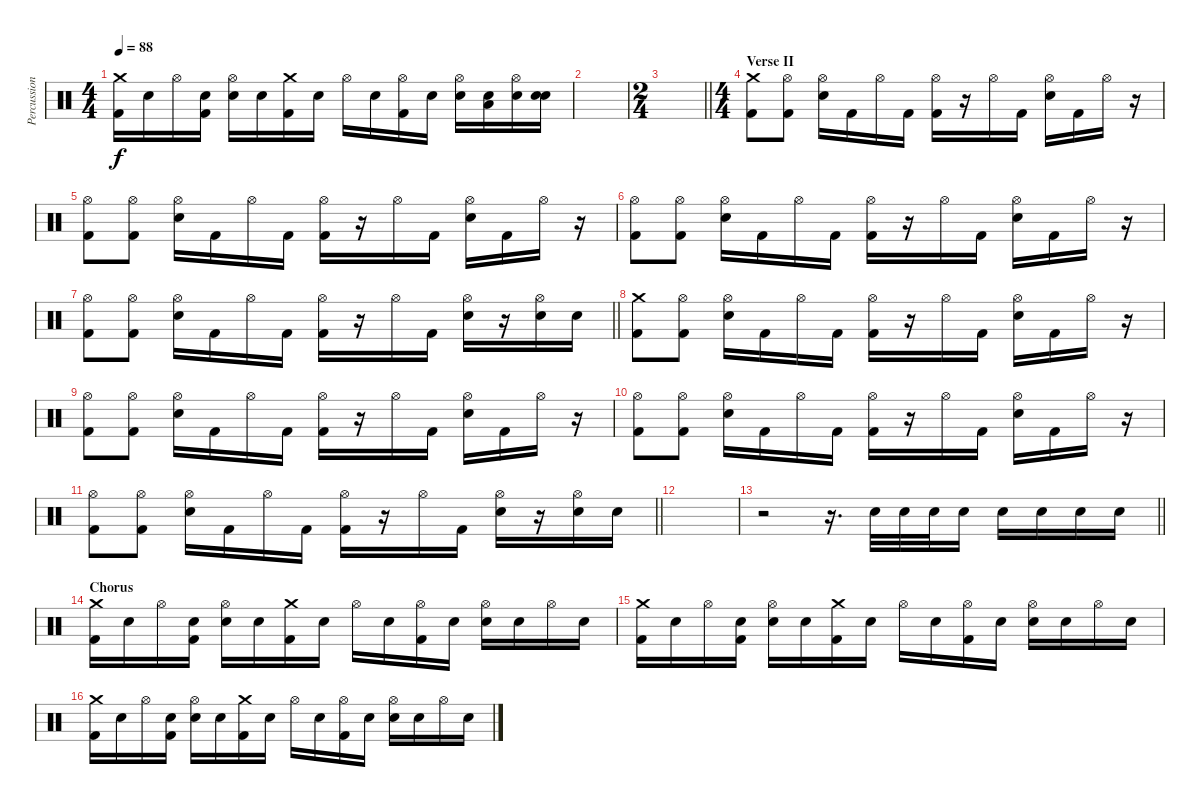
\track ("Percussion" "Percussion") {instrument percussion}
\staff {score}
\articulation defaults
\ts (4 4)
\tempo 88
\clef neutral
\ks c
("Crash medium (hit)" "Kick (hit) 2").16{dy f} "Snare (hit)".16 "Hi-Hat (open)".16 ("Snare (hit)" "Kick (hit) 2").16 ("Hi-Hat (open)" "Electric Snare (hit)").16 "Snare (hit)".16 ("Crash medium (hit)" "Kick (hit) 2").16 "Snare (hit)".16 "Hi-Hat (open)".16 "Snare (hit)".16 ("Hi-Hat (open)" "Kick (hit) 2").16 "Snare (hit)".16 ("Hi-Hat (open)" "Electric Snare (hit)").16 ("Snare (hit)" "Low Tom (hit)").16 ("Hi-Hat (open)" "Electric Snare (hit)").16 ("Snare (hit)" "Electric Snare (hit)").16 |
|
\ts (2 4)
\barLineRight lightlight
|
\ts (4 4)
\section ("" "Verse II")
("Crash medium (hit)" "Kick (hit) 2").8 ("Hi-Hat (open)" "Kick (hit) 2").8 ("Hi-Hat (open)" "Electric Snare (hit)").16 "Kick (hit) 2".16 "Hi-Hat (open)".16 "Kick (hit) 2".16 ("Hi-Hat (open)" "Kick (hit) 2").16 r.16 "Hi-Hat (open)".16 "Kick (hit) 2".16 ("Hi-Hat (open)" "Electric Snare (hit)").16 "Kick (hit) 2".16 "Hi-Hat (open)".16 r.16 |
("Hi-Hat (open)" "Kick (hit) 2").8 ("Hi-Hat (open)" "Kick (hit) 2").8 ("Hi-Hat (open)" "Electric Snare (hit)").16 "Kick (hit) 2".16 "Hi-Hat (open)".16 "Kick (hit) 2".16 ("Hi-Hat (open)" "Kick (hit) 2").16 r.16 "Hi-Hat (open)".16 "Kick (hit) 2".16 ("Hi-Hat (open)" "Electric Snare (hit)").16 "Kick (hit) 2".16 "Hi-Hat (open)".16 r.16 |
("Hi-Hat (open)" "Kick (hit) 2").8 ("Hi-Hat (open)" "Kick (hit) 2").8 ("Hi-Hat (open)" "Electric Snare (hit)").16 "Kick (hit) 2".16 "Hi-Hat (open)".16 "Kick (hit) 2".16 ("Hi-Hat (open)" "Kick (hit) 2").16 r.16 "Hi-Hat (open)".16 "Kick (hit) 2".16 ("Hi-Hat (open)" "Electric Snare (hit)").16 "Kick (hit) 2".16 "Hi-Hat (open)".16 r.16 |
\barLineRight lightlight
("Hi-Hat (open)" "Kick (hit) 2").8 ("Hi-Hat (open)" "Kick (hit) 2").8 ("Hi-Hat (open)" "Electric Snare (hit)").16 "Kick (hit) 2".16 "Hi-Hat (open)".16 "Kick (hit) 2".16 ("Hi-Hat (open)" "Kick (hit) 2").16 r.16 "Hi-Hat (open)".16 "Kick (hit) 2".16 ("Hi-Hat (open)" "Electric Snare (hit)").16 r.16 ("Hi-Hat (open)" "Electric Snare (hit)").16 "Electric Snare (hit)".16 |
("Crash medium (hit)" "Kick (hit) 2").8 ("Hi-Hat (open)" "Kick (hit) 2").8 ("Hi-Hat (open)" "Electric Snare (hit)").16 "Kick (hit) 2".16 "Hi-Hat (open)".16 "Kick (hit) 2".16 ("Hi-Hat (open)" "Kick (hit) 2").16 r.16 "Hi-Hat (open)".16 "Kick (hit) 2".16 ("Hi-Hat (open)" "Electric Snare (hit)").16 "Kick (hit) 2".16 "Hi-Hat (open)".16 r.16 |
("Hi-Hat (open)" "Kick (hit) 2").8 ("Hi-Hat (open)" "Kick (hit) 2").8 ("Hi-Hat (open)" "Electric Snare (hit)").16 "Kick (hit) 2".16 "Hi-Hat (open)".16 "Kick (hit) 2".16 ("Hi-Hat (open)" "Kick (hit) 2").16 r.16 "Hi-Hat (open)".16 "Kick (hit) 2".16 ("Hi-Hat (open)" "Electric Snare (hit)").16 "Kick (hit) 2".16 "Hi-Hat (open)".16 r.16 |
("Hi-Hat (open)" "Kick (hit) 2").8 ("Hi-Hat (open)" "Kick (hit) 2").8 ("Hi-Hat (open)" "Electric Snare (hit)").16 "Kick (hit) 2".16 "Hi-Hat (open)".16 "Kick (hit) 2".16 ("Hi-Hat (open)" "Kick (hit) 2").16 r.16 "Hi-Hat (open)".16 "Kick (hit) 2".16 ("Hi-Hat (open)" "Electric Snare (hit)").16 "Kick (hit) 2".16 "Hi-Hat (open)".16 r.16 |
\barLineRight lightlight
("Hi-Hat (open)" "Kick (hit) 2").8 ("Hi-Hat (open)" "Kick (hit) 2").8 ("Hi-Hat (open)" "Electric Snare (hit)").16 "Kick (hit) 2".16 "Hi-Hat (open)".16 "Kick (hit) 2".16 ("Hi-Hat (open)" "Kick (hit) 2").16 r.16 "Hi-Hat (open)".16 "Kick (hit) 2".16 ("Hi-Hat (open)" "Electric Snare (hit)").16 r.16 ("Hi-Hat (open)" "Electric Snare (hit)").16 "Electric Snare (hit)".16 |
|
\barLineRight lightlight
r.2 r.16{d} "Electric Snare (hit)".32 "Electric Snare (hit)".32 "Electric Snare (hit)".32 "Electric Snare (hit)".16 "Electric Snare (hit)".16 "Electric Snare (hit)".16 "Electric Snare (hit)".16 "Electric Snare (hit)".16 |
\section ("" "Chorus")
("Crash medium (hit)" "Kick (hit) 2").16 "Snare (hit)".16 "Hi-Hat (open)".16 ("Snare (hit)" "Kick (hit) 2").16 ("Hi-Hat (open)" "Electric Snare (hit)").16 "Snare (hit)".16 ("Crash medium (hit)" "Kick (hit) 2").16 "Snare (hit)".16 "Hi-Hat (open)".16 "Snare (hit)".16 ("Hi-Hat (open)" "Kick (hit) 2").16 "Snare (hit)".16 ("Hi-Hat (open)" "Electric Snare (hit)").16 "Snare (hit)".16 "Hi-Hat (open)".16 "Snare (hit)".16 |
("Crash medium (hit)" "Kick (hit) 2").16 "Snare (hit)".16 "Hi-Hat (open)".16 ("Snare (hit)" "Kick (hit) 2").16 ("Hi-Hat (open)" "Electric Snare (hit)").16 "Snare (hit)".16 ("Crash medium (hit)" "Kick (hit) 2").16 "Snare (hit)".16 "Hi-Hat (open)".16 "Snare (hit)".16 ("Hi-Hat (open)" "Kick (hit) 2").16 "Snare (hit)".16 ("Hi-Hat (open)" "Electric Snare (hit)").16 "Snare (hit)".16 "Hi-Hat (open)".16 "Snare (hit)".16 |
("Crash medium (hit)" "Kick (hit) 2").16 "Snare (hit)".16 "Hi-Hat (open)".16 ("Snare (hit)" "Kick (hit) 2").16 ("Hi-Hat (open)" "Electric Snare (hit)").16 "Snare (hit)".16 ("Crash medium (hit)" "Kick (hit) 2").16 "Snare (hit)".16 "Hi-Hat (open)".16 "Snare (hit)".16 ("Hi-Hat (open)" "Kick (hit) 2").16 "Snare (hit)".16 ("Hi-Hat (open)" "Electric Snare (hit)").16 "Snare (hit)".16 "Hi-Hat (open)".16 "Snare (hit)".16
